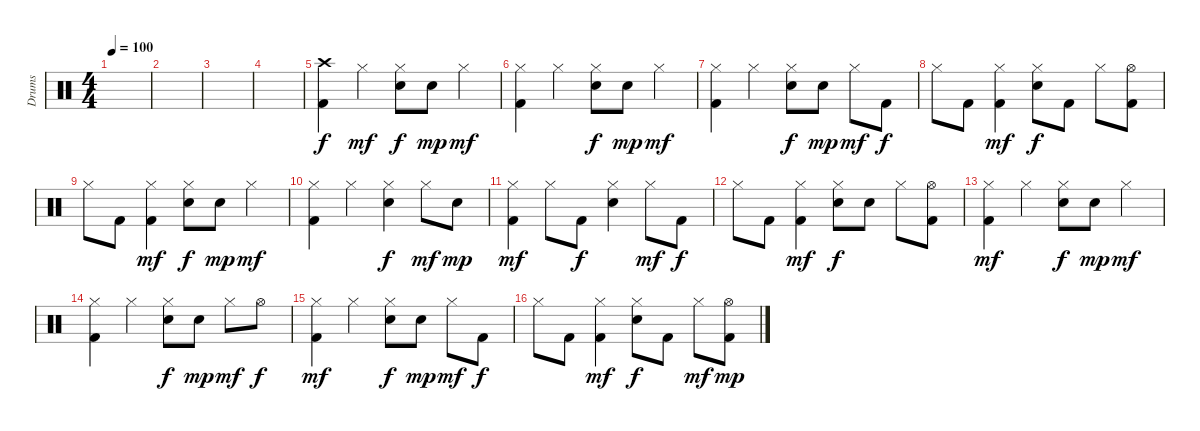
\track ("Drums" "Drums") {instrument percussion}
\staff {score}
\articulation defaults
\ts (4 4)
\tempo 100
\clef neutral
\ks c
|
|
|
|
("Crash high (hit)" "Kick (hit) 2").4 "Hi-Hat (closed)".4{dy mf} ("Hi-Hat (closed)" "Electric Snare (hit)").8{dy f} "Electric Snare (hit)".8{dy mp} "Hi-Hat (closed)".4{dy mf} |
("Hi-Hat (closed)" "Kick (hit) 2").4 "Hi-Hat (closed)".4 ("Hi-Hat (closed)" "Electric Snare (hit)").8{dy f} "Electric Snare (hit)".8{dy mp} "Hi-Hat (closed)".4{dy mf} |
("Hi-Hat (closed)" "Kick (hit) 2").4 "Hi-Hat (closed)".4 ("Hi-Hat (closed)" "Electric Snare (hit)").8{dy f} "Electric Snare (hit)".8{dy mp} "Hi-Hat (closed)".8{dy mf} "Kick (hit) 2".8{dy f} |
"Hi-Hat (closed)".8 "Kick (hit) 2".8 ("Hi-Hat (closed)" "Kick (hit) 2").4{dy mf} ("Hi-Hat (closed)" "Electric Snare (hit)").8{dy f} "Kick (hit) 2".8 "Hi-Hat (closed)".8 ("Hi-Hat (open)" "Kick (hit) 2").8 |
"Hi-Hat (closed)".8 "Kick (hit) 2".8 ("Hi-Hat (closed)" "Kick (hit) 2").4{dy mf} ("Hi-Hat (closed)" "Electric Snare (hit)").8{dy f} "Electric Snare (hit)".8{dy mp} "Hi-Hat (closed)".4{dy mf} |
("Hi-Hat (closed)" "Kick (hit) 2").4 "Hi-Hat (closed)".4 ("Hi-Hat (closed)" "Electric Snare (hit)").4{dy f} "Hi-Hat (closed)".8{dy mf} "Electric Snare (hit)".8{dy mp} |
("Hi-Hat (closed)" "Kick (hit) 2").4{dy mf} "Hi-Hat (closed)".8 "Kick (hit) 2".8{dy f} ("Hi-Hat (closed)" "Electric Snare (hit)").4 "Hi-Hat (closed)".8{dy mf} "Kick (hit) 2".8{dy f} |
"Hi-Hat (closed)".8 "Kick (hit) 2".8 ("Hi-Hat (closed)" "Kick (hit) 2").4{dy mf} ("Hi-Hat (closed)" "Electric Snare (hit)").8{dy f} "Electric Snare (hit)".8 "Hi-Hat (closed)".8 ("Hi-Hat (open)" "Kick (hit) 2").8 |
("Hi-Hat (closed)" "Kick (hit) 2").4{dy mf} "Hi-Hat (closed)".4 ("Hi-Hat (closed)" "Electric Snare (hit)").8{dy f} "Electric Snare (hit)".8{dy mp} "Hi-Hat (closed)".4{dy mf} |
("Hi-Hat (closed)" "Kick (hit) 2").4 "Hi-Hat (closed)".4 ("Hi-Hat (closed)" "Electric Snare (hit)").8{dy f} "Electric Snare (hit)".8{dy mp} "Hi-Hat (closed)".8{dy mf} "Hi-Hat (open)".8{dy f} |
("Hi-Hat (closed)" "Kick (hit) 2").4{dy mf} "Hi-Hat (closed)".4 ("Hi-Hat (closed)" "Electric Snare (hit)").8{dy f} "Electric Snare (hit)".8{dy mp} "Hi-Hat (closed)".8{dy mf} "Kick (hit) 2".8{dy f} |
"Hi-Hat (closed)".8 "Kick (hit) 2".8 ("Hi-Hat (closed)" "Kick (hit) 2").4{dy mf} ("Hi-Hat (closed)" "Electric Snare (hit)").8{dy f} "Kick (hit) 2".8 "Hi-Hat (closed)".8{dy mf} ("Hi-Hat (open)" "Kick (hit) 2").8{dy mp}
